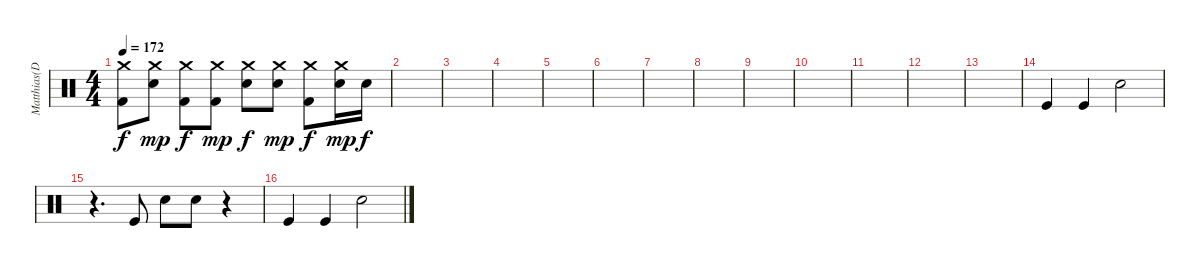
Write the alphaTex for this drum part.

\track ("Matthias(Drums)" "Matthias(D") {instrument percussion}
\staff {score}
\articulation defaults
\ts (4 4)
\tempo 172
\clef neutral
\ks c
("Crash medium (hit)" "Kick (hit) 2").8{dy f} ("Crash medium (hit)" "Snare (hit) 2").8{dy mp} ("Crash medium (hit)" "Kick (hit) 2").8{dy f} ("Crash medium (hit)" "Kick (hit) 2").8{dy mp} ("Crash medium (hit)" "Snare (hit) 2").8{dy f} ("Crash medium (hit)" "Snare (hit) 2").8{dy mp} ("Crash medium (hit)" "Kick (hit) 2").8{dy f} ("Crash medium (hit)" "Snare (hit) 2").16{dy mp} "Snare (hit) 2".16{dy f} |
|
|
|
|
|
|
|
|
|
|
|
|
"Kick (hit)".4{volume 6} "Kick (hit)".4 "Electric Snare (hit)".2 |
r.4{d} "Kick (hit)".8 "Electric Snare (hit)".8 "Electric Snare (hit)".8 r.4 |
"Kick (hit)".4{volume 6} "Kick (hit)".4 "Electric Snare (hit)".2
